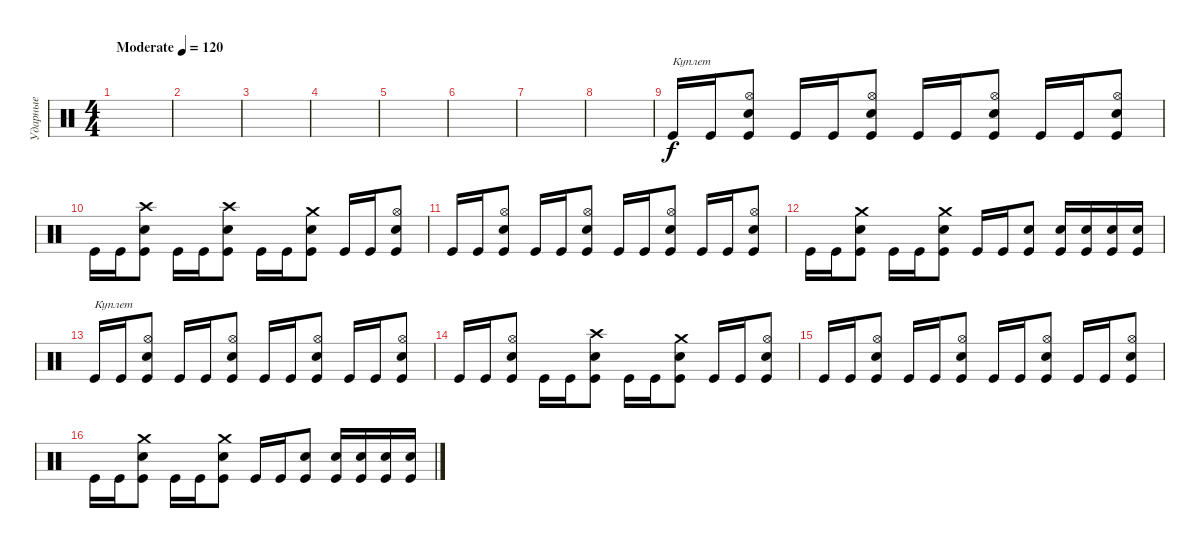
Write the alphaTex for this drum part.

\track ("Ударные" "Ударные") {instrument percussion}
\staff {score}
\articulation defaults
\ts (4 4)
\tempo (120 "Moderate")
\clef neutral
\ks c
|
|
|
|
|
|
|
|
"Kick (hit)".16{txt "Куплет"} "Kick (hit)".16 ("Hi-Hat (open)" "Snare (hit) 2" "Kick (hit)").8 "Kick (hit)".16 "Kick (hit)".16 ("Hi-Hat (open)" "Snare (hit) 2" "Kick (hit)").8 "Kick (hit)".16 "Kick (hit)".16 ("Hi-Hat (open)" "Snare (hit) 2" "Kick (hit)").8 "Kick (hit)".16 "Kick (hit)".16 ("Hi-Hat (open)" "Snare (hit) 2" "Kick (hit)").8 |
"Kick (hit)".16 "Kick (hit)".16 ("Crash high (hit)" "Snare (hit) 2" "Kick (hit)").8 "Kick (hit)".16 "Kick (hit)".16 ("Crash high (hit)" "Snare (hit) 2" "Kick (hit)").8 "Kick (hit)".16 "Kick (hit)".16 ("Crash medium (hit)" "Snare (hit) 2" "Kick (hit)").8 "Kick (hit)".16 "Kick (hit)".16 ("Hi-Hat (open)" "Snare (hit) 2" "Kick (hit)").8 |
"Kick (hit)".16 "Kick (hit)".16 ("Hi-Hat (open)" "Snare (hit) 2" "Kick (hit)").8 "Kick (hit)".16 "Kick (hit)".16 ("Hi-Hat (open)" "Snare (hit) 2" "Kick (hit)").8 "Kick (hit)".16 "Kick (hit)".16 ("Hi-Hat (open)" "Snare (hit) 2" "Kick (hit)").8 "Kick (hit)".16 "Kick (hit)".16 ("Hi-Hat (open)" "Snare (hit) 2" "Kick (hit)").8 |
"Kick (hit)".16 "Kick (hit)".16 ("Crash medium (hit)" "Snare (hit) 2" "Kick (hit)").8 "Kick (hit)".16 "Kick (hit)".16 ("Crash medium (hit)" "Snare (hit) 2" "Kick (hit)").8 "Kick (hit)".16 "Kick (hit)".16 ("Snare (hit) 2" "Kick (hit)").8 ("Snare (hit) 2" "Kick (hit)").16 ("Snare (hit) 2" "Kick (hit)").16 ("Snare (hit) 2" "Kick (hit)").16 ("Snare (hit) 2" "Kick (hit)").16 |
"Kick (hit)".16{txt "Куплет"} "Kick (hit)".16 ("Hi-Hat (open)" "Snare (hit) 2" "Kick (hit)").8 "Kick (hit)".16 "Kick (hit)".16 ("Hi-Hat (open)" "Snare (hit) 2" "Kick (hit)").8 "Kick (hit)".16 "Kick (hit)".16 ("Hi-Hat (open)" "Snare (hit) 2" "Kick (hit)").8 "Kick (hit)".16 "Kick (hit)".16 ("Hi-Hat (open)" "Snare (hit) 2" "Kick (hit)").8 |
"Kick (hit)".16 "Kick (hit)".16 ("Hi-Hat (open)" "Snare (hit) 2" "Kick (hit)").8 "Kick (hit)".16 "Kick (hit)".16 ("Crash high (hit)" "Snare (hit) 2" "Kick (hit)").8 "Kick (hit)".16 "Kick (hit)".16 ("Crash medium (hit)" "Snare (hit) 2" "Kick (hit)").8 "Kick (hit)".16 "Kick (hit)".16 ("Hi-Hat (open)" "Snare (hit) 2" "Kick (hit)").8 |
"Kick (hit)".16 "Kick (hit)".16 ("Hi-Hat (open)" "Snare (hit) 2" "Kick (hit)").8 "Kick (hit)".16 "Kick (hit)".16 ("Hi-Hat (open)" "Snare (hit) 2" "Kick (hit)").8 "Kick (hit)".16 "Kick (hit)".16 ("Hi-Hat (open)" "Snare (hit) 2" "Kick (hit)").8 "Kick (hit)".16 "Kick (hit)".16 ("Hi-Hat (open)" "Snare (hit) 2" "Kick (hit)").8 |
"Kick (hit)".16 "Kick (hit)".16 ("Crash medium (hit)" "Snare (hit) 2" "Kick (hit)").8 "Kick (hit)".16 "Kick (hit)".16 ("Crash medium (hit)" "Snare (hit) 2" "Kick (hit)").8 "Kick (hit)".16 "Kick (hit)".16 ("Snare (hit) 2" "Kick (hit)").8 ("Snare (hit) 2" "Kick (hit)").16 ("Snare (hit) 2" "Kick (hit)").16 ("Snare (hit) 2" "Kick (hit)").16 ("Snare (hit) 2" "Kick (hit)").16
